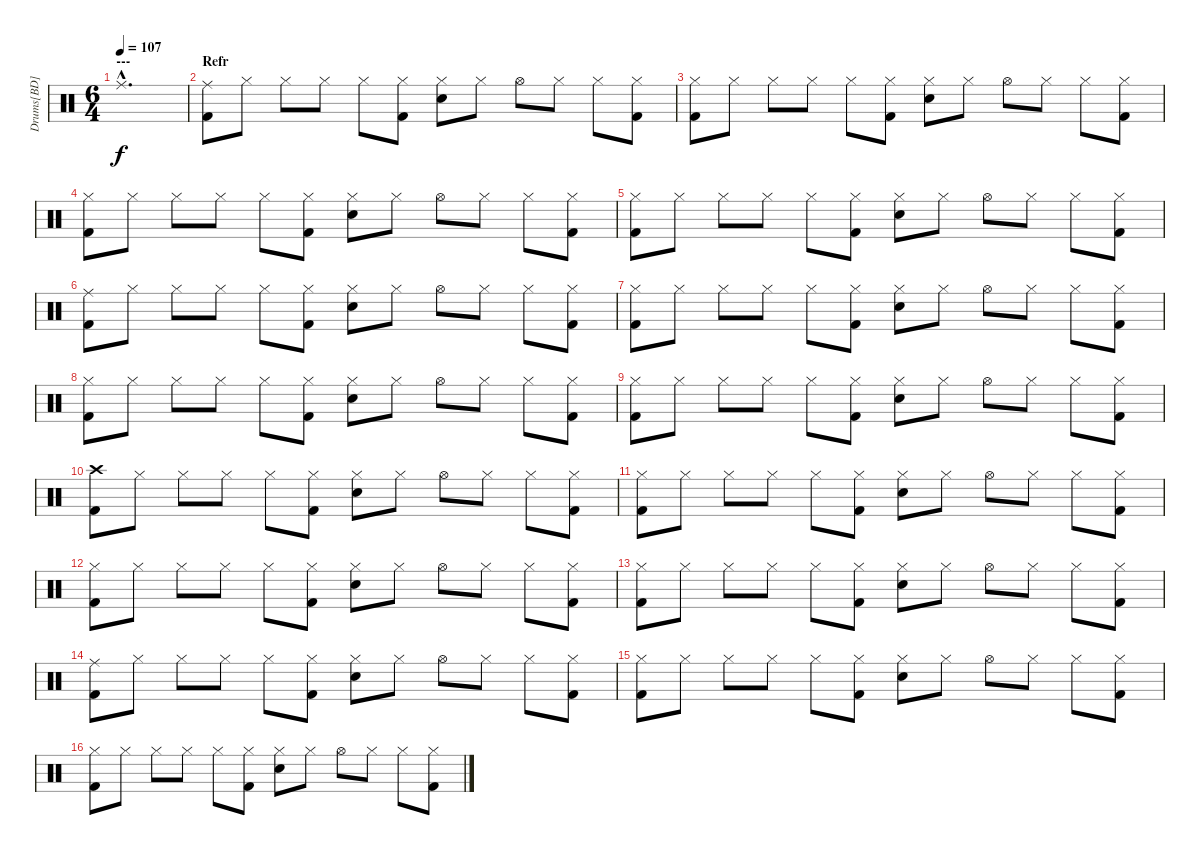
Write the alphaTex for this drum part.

\track ("Drums[BD]" "Drums[BD]") {instrument percussion}
\staff {score}
\articulation defaults
\ts (6 4)
\section ("" "---")
\tempo 107
\clef neutral
\ks c "Ride (middle)"{hac}.1{d dy f}
|
\section ("" "Refr")
("Kick (hit) 2" "Ride (middle)").8 "Hi-Hat (closed)".8 "Hi-Hat (closed)".8 "Hi-Hat (closed)".8 "Hi-Hat (closed)".8 ("Kick (hit) 2" "Hi-Hat (closed)").8 ("Electric Snare (hit)" "Hi-Hat (closed)").8 "Hi-Hat (closed)".8 "Hi-Hat (open)".8 "Hi-Hat (closed)".8 "Hi-Hat (closed)".8 ("Kick (hit) 2" "Hi-Hat (closed)").8 |
("Kick (hit) 2" "Hi-Hat (closed)").8 "Hi-Hat (closed)".8 "Hi-Hat (closed)".8 "Hi-Hat (closed)".8 "Hi-Hat (closed)".8 ("Kick (hit) 2" "Hi-Hat (closed)").8 ("Electric Snare (hit)" "Hi-Hat (closed)").8 "Hi-Hat (closed)".8 "Hi-Hat (open)".8 "Hi-Hat (closed)".8 "Hi-Hat (closed)".8 ("Kick (hit) 2" "Hi-Hat (closed)").8 |
("Kick (hit) 2" "Hi-Hat (closed)").8 "Hi-Hat (closed)".8 "Hi-Hat (closed)".8 "Hi-Hat (closed)".8 "Hi-Hat (closed)".8 ("Kick (hit) 2" "Hi-Hat (closed)").8 ("Electric Snare (hit)" "Hi-Hat (closed)").8 "Hi-Hat (closed)".8 "Hi-Hat (open)".8 "Hi-Hat (closed)".8 "Hi-Hat (closed)".8 ("Kick (hit) 2" "Hi-Hat (closed)").8 |
("Kick (hit) 2" "Hi-Hat (closed)").8 "Hi-Hat (closed)".8 "Hi-Hat (closed)".8 "Hi-Hat (closed)".8 "Hi-Hat (closed)".8 ("Kick (hit) 2" "Hi-Hat (closed)").8 ("Electric Snare (hit)" "Hi-Hat (closed)").8 "Hi-Hat (closed)".8 "Hi-Hat (open)".8 "Hi-Hat (closed)".8 "Hi-Hat (closed)".8 ("Kick (hit) 2" "Hi-Hat (closed)").8 |
("Kick (hit) 2" "Ride (middle)").8 "Hi-Hat (closed)".8 "Hi-Hat (closed)".8 "Hi-Hat (closed)".8 "Hi-Hat (closed)".8 ("Kick (hit) 2" "Hi-Hat (closed)").8 ("Electric Snare (hit)" "Hi-Hat (closed)").8 "Hi-Hat (closed)".8 "Hi-Hat (open)".8 "Hi-Hat (closed)".8 "Hi-Hat (closed)".8 ("Kick (hit) 2" "Hi-Hat (closed)").8 |
("Kick (hit) 2" "Hi-Hat (closed)").8 "Hi-Hat (closed)".8 "Hi-Hat (closed)".8 "Hi-Hat (closed)".8 "Hi-Hat (closed)".8 ("Kick (hit) 2" "Hi-Hat (closed)").8 ("Electric Snare (hit)" "Hi-Hat (closed)").8 "Hi-Hat (closed)".8 "Hi-Hat (open)".8 "Hi-Hat (closed)".8 "Hi-Hat (closed)".8 ("Kick (hit) 2" "Hi-Hat (closed)").8 |
("Kick (hit) 2" "Hi-Hat (closed)").8 "Hi-Hat (closed)".8 "Hi-Hat (closed)".8 "Hi-Hat (closed)".8 "Hi-Hat (closed)".8 ("Kick (hit) 2" "Hi-Hat (closed)").8 ("Electric Snare (hit)" "Hi-Hat (closed)").8 "Hi-Hat (closed)".8 "Hi-Hat (open)".8 "Hi-Hat (closed)".8 "Hi-Hat (closed)".8 ("Kick (hit) 2" "Hi-Hat (closed)").8 |
("Kick (hit) 2" "Hi-Hat (closed)").8 "Hi-Hat (closed)".8 "Hi-Hat (closed)".8 "Hi-Hat (closed)".8 "Hi-Hat (closed)".8 ("Kick (hit) 2" "Hi-Hat (closed)").8 ("Electric Snare (hit)" "Hi-Hat (closed)").8 "Hi-Hat (closed)".8 "Hi-Hat (open)".8 "Hi-Hat (closed)".8 "Hi-Hat (closed)".8 ("Kick (hit) 2" "Hi-Hat (closed)").8 |
("Kick (hit) 2" "Crash high (hit)").8 "Hi-Hat (closed)".8 "Hi-Hat (closed)".8 "Hi-Hat (closed)".8 "Hi-Hat (closed)".8 ("Kick (hit) 2" "Hi-Hat (closed)").8 ("Electric Snare (hit)" "Hi-Hat (closed)").8 "Hi-Hat (closed)".8 "Hi-Hat (open)".8 "Hi-Hat (closed)".8 "Hi-Hat (closed)".8 ("Kick (hit) 2" "Hi-Hat (closed)").8 |
("Kick (hit) 2" "Hi-Hat (closed)").8 "Hi-Hat (closed)".8 "Hi-Hat (closed)".8 "Hi-Hat (closed)".8 "Hi-Hat (closed)".8 ("Kick (hit) 2" "Hi-Hat (closed)").8 ("Electric Snare (hit)" "Hi-Hat (closed)").8 "Hi-Hat (closed)".8 "Hi-Hat (open)".8 "Hi-Hat (closed)".8 "Hi-Hat (closed)".8 ("Kick (hit) 2" "Hi-Hat (closed)").8 |
("Kick (hit) 2" "Hi-Hat (closed)").8 "Hi-Hat (closed)".8 "Hi-Hat (closed)".8 "Hi-Hat (closed)".8 "Hi-Hat (closed)".8 ("Kick (hit) 2" "Hi-Hat (closed)").8 ("Electric Snare (hit)" "Hi-Hat (closed)").8 "Hi-Hat (closed)".8 "Hi-Hat (open)".8 "Hi-Hat (closed)".8 "Hi-Hat (closed)".8 ("Kick (hit) 2" "Hi-Hat (closed)").8 |
("Kick (hit) 2" "Hi-Hat (closed)").8 "Hi-Hat (closed)".8 "Hi-Hat (closed)".8 "Hi-Hat (closed)".8 "Hi-Hat (closed)".8 ("Kick (hit) 2" "Hi-Hat (closed)").8 ("Electric Snare (hit)" "Hi-Hat (closed)").8 "Hi-Hat (closed)".8 "Hi-Hat (open)".8 "Hi-Hat (closed)".8 "Hi-Hat (closed)".8 ("Kick (hit) 2" "Hi-Hat (closed)").8 |
("Kick (hit) 2" "Ride (middle)").8 "Hi-Hat (closed)".8 "Hi-Hat (closed)".8 "Hi-Hat (closed)".8 "Hi-Hat (closed)".8 ("Kick (hit) 2" "Hi-Hat (closed)").8 ("Electric Snare (hit)" "Hi-Hat (closed)").8 "Hi-Hat (closed)".8 "Hi-Hat (open)".8 "Hi-Hat (closed)".8 "Hi-Hat (closed)".8 ("Kick (hit) 2" "Hi-Hat (closed)").8 |
("Kick (hit) 2" "Hi-Hat (closed)").8 "Hi-Hat (closed)".8 "Hi-Hat (closed)".8 "Hi-Hat (closed)".8 "Hi-Hat (closed)".8 ("Kick (hit) 2" "Hi-Hat (closed)").8 ("Electric Snare (hit)" "Hi-Hat (closed)").8 "Hi-Hat (closed)".8 "Hi-Hat (open)".8 "Hi-Hat (closed)".8 "Hi-Hat (closed)".8 ("Kick (hit) 2" "Hi-Hat (closed)").8 |
("Kick (hit) 2" "Hi-Hat (closed)").8 "Hi-Hat (closed)".8 "Hi-Hat (closed)".8 "Hi-Hat (closed)".8 "Hi-Hat (closed)".8 ("Kick (hit) 2" "Hi-Hat (closed)").8 ("Electric Snare (hit)" "Hi-Hat (closed)").8 "Hi-Hat (closed)".8 "Hi-Hat (open)".8 "Hi-Hat (closed)".8 "Hi-Hat (closed)".8 ("Kick (hit) 2" "Hi-Hat (closed)").8
